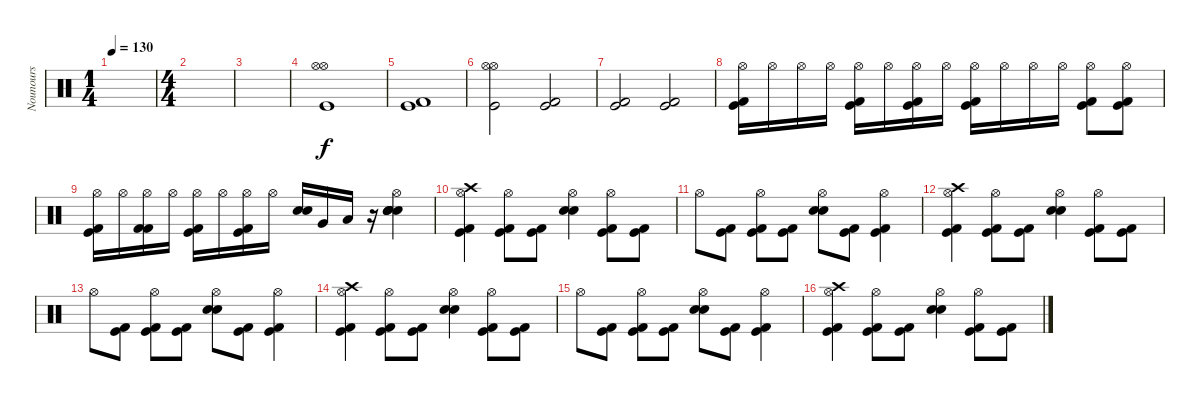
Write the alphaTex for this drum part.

\track ("Nounours" "Nounours") {instrument percussion}
\staff {score}
\articulation defaults
\ts (1 4)
\tempo 130
\clef neutral
\ks c
|
\ts (4 4)
|
|
("Hi-Hat (open)" "Hi-Hat (open)" "Kick (hit)").1 |
("Kick (hit)" "Kick (hit) 2").1 |
("Hi-Hat (open)" "Hi-Hat (open)" "Kick (hit)").2 ("Kick (hit) 2" "Kick (hit)").2 |
("Kick (hit)" "Kick (hit) 2").2 ("Kick (hit)" "Kick (hit) 2").2 |
("Hi-Hat (open)" "Kick (hit) 2" "Kick (hit)").16 "Hi-Hat (open)".16 "Hi-Hat (open)".16 "Hi-Hat (open)".16 ("Hi-Hat (open)" "Kick (hit)" "Kick (hit) 2").16 "Hi-Hat (open)".16 ("Hi-Hat (open)" "Kick (hit)" "Kick (hit) 2").16 "Hi-Hat (open)".16 ("Hi-Hat (open)" "Kick (hit)" "Kick (hit) 2").16 "Hi-Hat (open)".16 "Hi-Hat (open)".16 "Hi-Hat (open)".16 ("Hi-Hat (open)" "Kick (hit)" "Kick (hit) 2").8 ("Hi-Hat (open)" "Kick (hit) 2" "Kick (hit)").8 |
("Hi-Hat (open)" "Kick (hit) 2" "Kick (hit)").16 "Hi-Hat (open)".16 ("Hi-Hat (open)" "Kick (hit) 2" "Kick (hit) 2").16 "Hi-Hat (open)".16 ("Hi-Hat (open)" "Kick (hit)" "Kick (hit) 2").16 "Hi-Hat (open)".16 ("Hi-Hat (open)" "Kick (hit)" "Kick (hit) 2").16 "Hi-Hat (open)".16 ("Snare (hit) 2" "Electric Snare (hit)").16 "Very Low Tom (hit)".16 "Low Floor Tom (hit)".16 r.16 ("Hi-Hat (open)" "Snare (hit) 2" "Snare (hit) 2" "Electric Snare (hit)" "Electric Snare (hit)").4 |
("Crash high (hit)" "Hi-Hat (open)" "Kick (hit)" "Kick (hit) 2").4 ("Hi-Hat (open)" "Kick (hit) 2" "Kick (hit)").8 ("Kick (hit) 2" "Kick (hit)").8 ("Hi-Hat (open)" "Electric Snare (hit)" "Snare (hit) 2").4 ("Hi-Hat (open)" "Kick (hit)" "Kick (hit) 2").8 ("Kick (hit)" "Kick (hit) 2").8 |
"Hi-Hat (open)".8 ("Kick (hit) 2" "Kick (hit)").8 ("Hi-Hat (open)" "Kick (hit)" "Kick (hit) 2").8 ("Kick (hit) 2" "Kick (hit)").8 ("Hi-Hat (open)" "Snare (hit) 2" "Electric Snare (hit)").8 ("Kick (hit) 2" "Kick (hit)").8 ("Hi-Hat (open)" "Kick (hit) 2" "Kick (hit)").4 |
("Crash high (hit)" "Hi-Hat (open)" "Kick (hit)" "Kick (hit) 2").4 ("Hi-Hat (open)" "Kick (hit) 2" "Kick (hit)").8 ("Kick (hit) 2" "Kick (hit)").8 ("Hi-Hat (open)" "Electric Snare (hit)" "Snare (hit) 2").4 ("Hi-Hat (open)" "Kick (hit)" "Kick (hit) 2").8 ("Kick (hit)" "Kick (hit) 2").8 |
"Hi-Hat (open)".8 ("Kick (hit) 2" "Kick (hit)").8 ("Hi-Hat (open)" "Kick (hit)" "Kick (hit) 2").8 ("Kick (hit) 2" "Kick (hit)").8 ("Hi-Hat (open)" "Snare (hit) 2" "Electric Snare (hit)").8 ("Kick (hit) 2" "Kick (hit)").8 ("Hi-Hat (open)" "Kick (hit) 2" "Kick (hit)").4 |
("Crash high (hit)" "Hi-Hat (open)" "Kick (hit)" "Kick (hit) 2").4 ("Hi-Hat (open)" "Kick (hit) 2" "Kick (hit)").8 ("Kick (hit) 2" "Kick (hit)").8 ("Hi-Hat (open)" "Electric Snare (hit)" "Snare (hit) 2").4 ("Hi-Hat (open)" "Kick (hit)" "Kick (hit) 2").8 ("Kick (hit)" "Kick (hit) 2").8 |
"Hi-Hat (open)".8 ("Kick (hit) 2" "Kick (hit)").8 ("Hi-Hat (open)" "Kick (hit)" "Kick (hit) 2").8 ("Kick (hit) 2" "Kick (hit)").8 ("Hi-Hat (open)" "Snare (hit) 2" "Electric Snare (hit)").8 ("Kick (hit) 2" "Kick (hit)").8 ("Hi-Hat (open)" "Kick (hit) 2" "Kick (hit)").4 |
("Crash high (hit)" "Hi-Hat (open)" "Kick (hit)" "Kick (hit) 2").4 ("Hi-Hat (open)" "Kick (hit) 2" "Kick (hit)").8 ("Kick (hit) 2" "Kick (hit)").8 ("Hi-Hat (open)" "Electric Snare (hit)" "Snare (hit) 2").4 ("Hi-Hat (open)" "Kick (hit)" "Kick (hit) 2").8 ("Kick (hit)" "Kick (hit) 2").8
